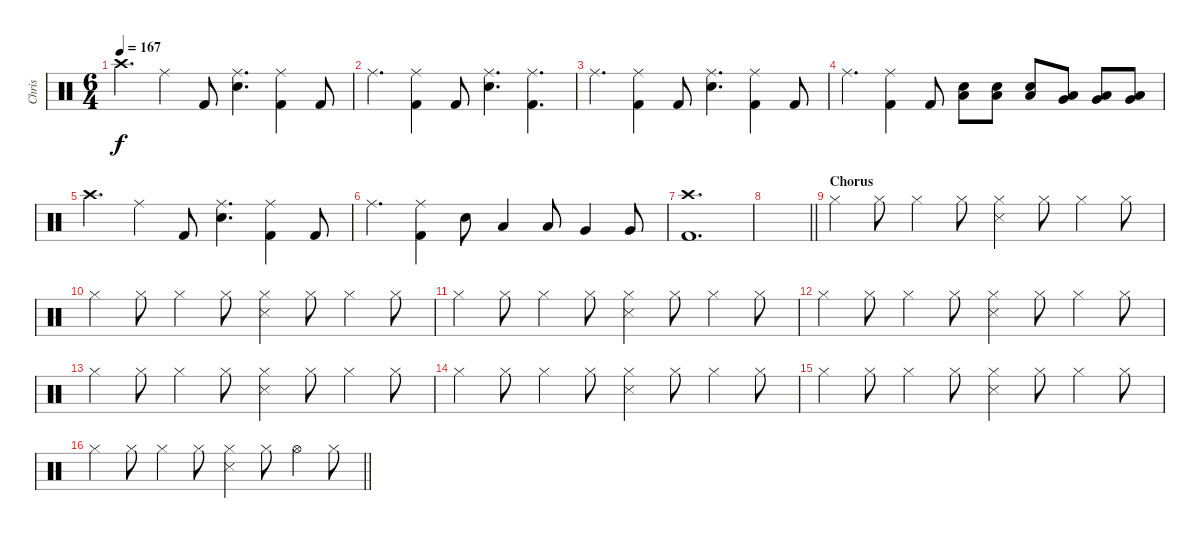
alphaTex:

\track ("Chris" "Chris") {instrument percussion}
\staff {score}
\articulation defaults
\ts (6 4)
\tempo 167
\clef neutral
\ks c "Crash high (hit)".4{d dy f} "Ride (middle)".4 "Kick (hit) 2".8
("Ride (middle)" "Electric Snare (hit)").4{d} ("Ride (middle)" "Kick (hit) 2").4 "Kick (hit) 2".8 |
"Ride (middle)".4{d} ("Ride (middle)" "Kick (hit) 2").4 "Kick (hit) 2".8 ("Ride (middle)" "Electric Snare (hit)").4{d} ("Ride (middle)" "Kick (hit) 2").4{d} |
"Ride (middle)".4{d} ("Ride (middle)" "Kick (hit) 2").4 "Kick (hit) 2".8 ("Ride (middle)" "Electric Snare (hit)").4{d} ("Ride (middle)" "Kick (hit) 2").4 "Kick (hit) 2".8 |
"Ride (middle)".4{d} ("Ride (middle)" "Kick (hit) 2").4 "Kick (hit) 2".8 ("Low Tom (hit)" "Electric Snare (hit)").8 ("Low Tom (hit)" "Electric Snare (hit)").8 ("Low Tom (hit)" "Electric Snare (hit)").8 ("Low Tom (hit)" "Very Low Tom (hit)").8 ("Low Tom (hit)" "Very Low Tom (hit)").8 ("Low Tom (hit)" "Very Low Tom (hit)").8 |
"Crash high (hit)".4{d} "Ride (middle)".4 "Kick (hit) 2".8 ("Ride (middle)" "Electric Snare (hit)").4{d} ("Ride (middle)" "Kick (hit) 2").4 "Kick (hit) 2".8 |
"Ride (middle)".4{d} ("Ride (middle)" "Kick (hit) 2").4 "Electric Snare (hit)".8 "Low Tom (hit)".4 "Low Tom (hit)".8 "Very Low Tom (hit)".4 "Very Low Tom (hit)".8 |
("Crash high (hit)" "Kick (hit) 2").1{d} |
\barLineRight lightlight
|
\section ("" "Chorus")
"Hi-Hat (closed)".4 "Hi-Hat (closed)".8 "Hi-Hat (closed)".4 "Hi-Hat (closed)".8 ("Hi-Hat (closed)" "Snare (side stick) 3").4 "Hi-Hat (closed)".8 "Hi-Hat (closed)".4 "Hi-Hat (closed)".8 |
"Hi-Hat (closed)".4 "Hi-Hat (closed)".8 "Hi-Hat (closed)".4 "Hi-Hat (closed)".8 ("Hi-Hat (closed)" "Snare (side stick) 3").4 "Hi-Hat (closed)".8 "Hi-Hat (closed)".4 "Hi-Hat (closed)".8 |
"Hi-Hat (closed)".4 "Hi-Hat (closed)".8 "Hi-Hat (closed)".4 "Hi-Hat (closed)".8 ("Hi-Hat (closed)" "Snare (side stick) 3").4 "Hi-Hat (closed)".8 "Hi-Hat (closed)".4 "Hi-Hat (closed)".8 |
"Hi-Hat (closed)".4 "Hi-Hat (closed)".8 "Hi-Hat (closed)".4 "Hi-Hat (closed)".8 ("Hi-Hat (closed)" "Snare (side stick) 3").4 "Hi-Hat (closed)".8 "Hi-Hat (closed)".4 "Hi-Hat (closed)".8 |
"Hi-Hat (closed)".4 "Hi-Hat (closed)".8 "Hi-Hat (closed)".4 "Hi-Hat (closed)".8 ("Hi-Hat (closed)" "Snare (side stick) 3").4 "Hi-Hat (closed)".8 "Hi-Hat (closed)".4 "Hi-Hat (closed)".8 |
"Hi-Hat (closed)".4 "Hi-Hat (closed)".8 "Hi-Hat (closed)".4 "Hi-Hat (closed)".8 ("Hi-Hat (closed)" "Snare (side stick) 3").4 "Hi-Hat (closed)".8 "Hi-Hat (closed)".4 "Hi-Hat (closed)".8 |
"Hi-Hat (closed)".4 "Hi-Hat (closed)".8 "Hi-Hat (closed)".4 "Hi-Hat (closed)".8 ("Hi-Hat (closed)" "Snare (side stick) 3").4 "Hi-Hat (closed)".8 "Hi-Hat (closed)".4 "Hi-Hat (closed)".8 |
\barLineRight lightlight "Hi-Hat (closed)".4 "Hi-Hat (closed)".8 "Hi-Hat (closed)".4 "Hi-Hat (closed)".8
("Hi-Hat (closed)" "Snare (side stick) 3").4 "Hi-Hat (closed)".8 "Hi-Hat (open)".4 "Hi-Hat (closed)".8
